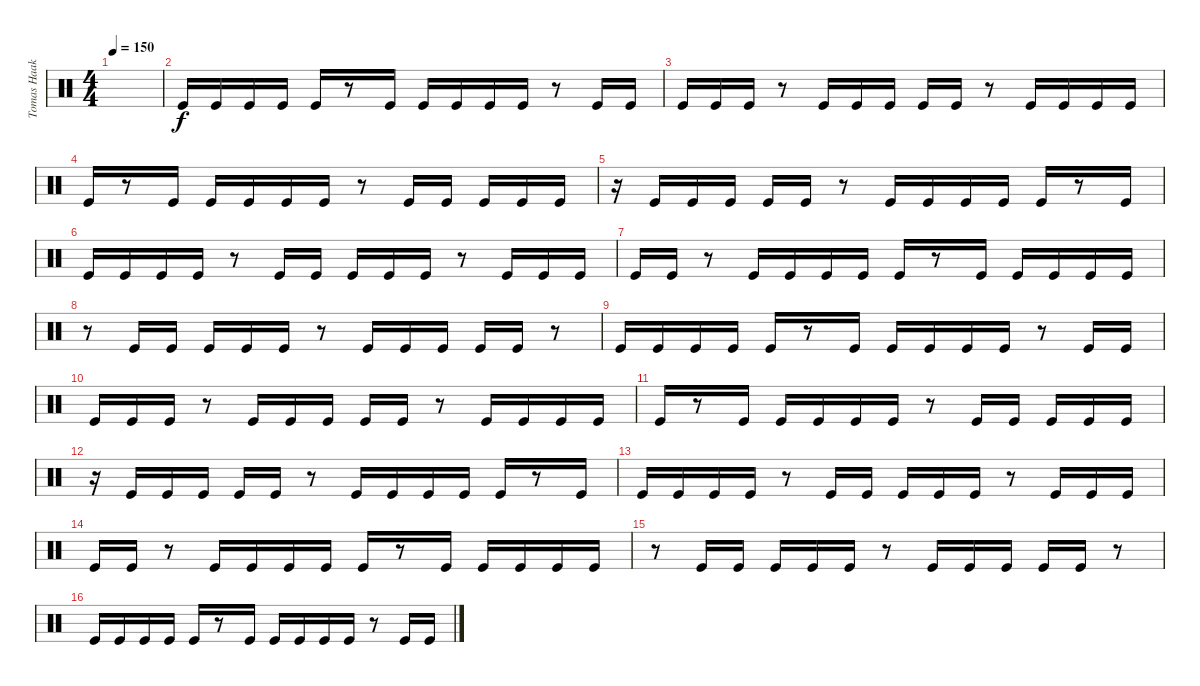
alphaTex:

\track ("Tomas Haake - Kicks" "Tomas Haak") {instrument percussion}
\staff {score}
\articulation defaults
\ts (4 4)
\tempo 150
\clef neutral
\ks c
|
"Kick (hit)".16 "Kick (hit)".16 "Kick (hit)".16 "Kick (hit)".16 "Kick (hit)".16 r.8 "Kick (hit)".16 "Kick (hit)".16 "Kick (hit)".16 "Kick (hit)".16 "Kick (hit)".16 r.8 "Kick (hit)".16 "Kick (hit)".16 |
"Kick (hit)".16 "Kick (hit)".16 "Kick (hit)".16 r.8 "Kick (hit)".16 "Kick (hit)".16 "Kick (hit)".16 "Kick (hit)".16 "Kick (hit)".16 r.8 "Kick (hit)".16 "Kick (hit)".16 "Kick (hit)".16 "Kick (hit)".16 |
"Kick (hit)".16 r.8 "Kick (hit)".16 "Kick (hit)".16 "Kick (hit)".16 "Kick (hit)".16 "Kick (hit)".16 r.8 "Kick (hit)".16 "Kick (hit)".16 "Kick (hit)".16 "Kick (hit)".16 "Kick (hit)".16 |
r.16 "Kick (hit)".16 "Kick (hit)".16 "Kick (hit)".16 "Kick (hit)".16 "Kick (hit)".16 r.8 "Kick (hit)".16 "Kick (hit)".16 "Kick (hit)".16 "Kick (hit)".16 "Kick (hit)".16 r.8 "Kick (hit)".16 |
"Kick (hit)".16 "Kick (hit)".16 "Kick (hit)".16 "Kick (hit)".16 r.8 "Kick (hit)".16 "Kick (hit)".16 "Kick (hit)".16 "Kick (hit)".16 "Kick (hit)".16 r.8 "Kick (hit)".16 "Kick (hit)".16 "Kick (hit)".16 |
"Kick (hit)".16 "Kick (hit)".16 r.8 "Kick (hit)".16 "Kick (hit)".16 "Kick (hit)".16 "Kick (hit)".16 "Kick (hit)".16 r.8 "Kick (hit)".16 "Kick (hit)".16 "Kick (hit)".16 "Kick (hit)".16 "Kick (hit)".16 |
r.8 "Kick (hit)".16 "Kick (hit)".16 "Kick (hit)".16 "Kick (hit)".16 "Kick (hit)".16 r.8 "Kick (hit)".16 "Kick (hit)".16 "Kick (hit)".16 "Kick (hit)".16 "Kick (hit)".16 r.8 |
"Kick (hit)".16 "Kick (hit)".16 "Kick (hit)".16 "Kick (hit)".16 "Kick (hit)".16 r.8 "Kick (hit)".16 "Kick (hit)".16 "Kick (hit)".16 "Kick (hit)".16 "Kick (hit)".16 r.8 "Kick (hit)".16 "Kick (hit)".16 |
"Kick (hit)".16 "Kick (hit)".16 "Kick (hit)".16 r.8 "Kick (hit)".16 "Kick (hit)".16 "Kick (hit)".16 "Kick (hit)".16 "Kick (hit)".16 r.8 "Kick (hit)".16 "Kick (hit)".16 "Kick (hit)".16 "Kick (hit)".16 |
"Kick (hit)".16 r.8 "Kick (hit)".16 "Kick (hit)".16 "Kick (hit)".16 "Kick (hit)".16 "Kick (hit)".16 r.8 "Kick (hit)".16 "Kick (hit)".16 "Kick (hit)".16 "Kick (hit)".16 "Kick (hit)".16 |
r.16 "Kick (hit)".16 "Kick (hit)".16 "Kick (hit)".16 "Kick (hit)".16 "Kick (hit)".16 r.8 "Kick (hit)".16 "Kick (hit)".16 "Kick (hit)".16 "Kick (hit)".16 "Kick (hit)".16 r.8 "Kick (hit)".16 |
"Kick (hit)".16 "Kick (hit)".16 "Kick (hit)".16 "Kick (hit)".16 r.8 "Kick (hit)".16 "Kick (hit)".16 "Kick (hit)".16 "Kick (hit)".16 "Kick (hit)".16 r.8 "Kick (hit)".16 "Kick (hit)".16 "Kick (hit)".16 |
"Kick (hit)".16 "Kick (hit)".16 r.8 "Kick (hit)".16 "Kick (hit)".16 "Kick (hit)".16 "Kick (hit)".16 "Kick (hit)".16 r.8 "Kick (hit)".16 "Kick (hit)".16 "Kick (hit)".16 "Kick (hit)".16 "Kick (hit)".16 |
r.8 "Kick (hit)".16 "Kick (hit)".16 "Kick (hit)".16 "Kick (hit)".16 "Kick (hit)".16 r.8 "Kick (hit)".16 "Kick (hit)".16 "Kick (hit)".16 "Kick (hit)".16 "Kick (hit)".16 r.8 |
"Kick (hit)".16 "Kick (hit)".16 "Kick (hit)".16 "Kick (hit)".16 "Kick (hit)".16 r.8 "Kick (hit)".16 "Kick (hit)".16 "Kick (hit)".16 "Kick (hit)".16 "Kick (hit)".16 r.8 "Kick (hit)".16 "Kick (hit)".16
